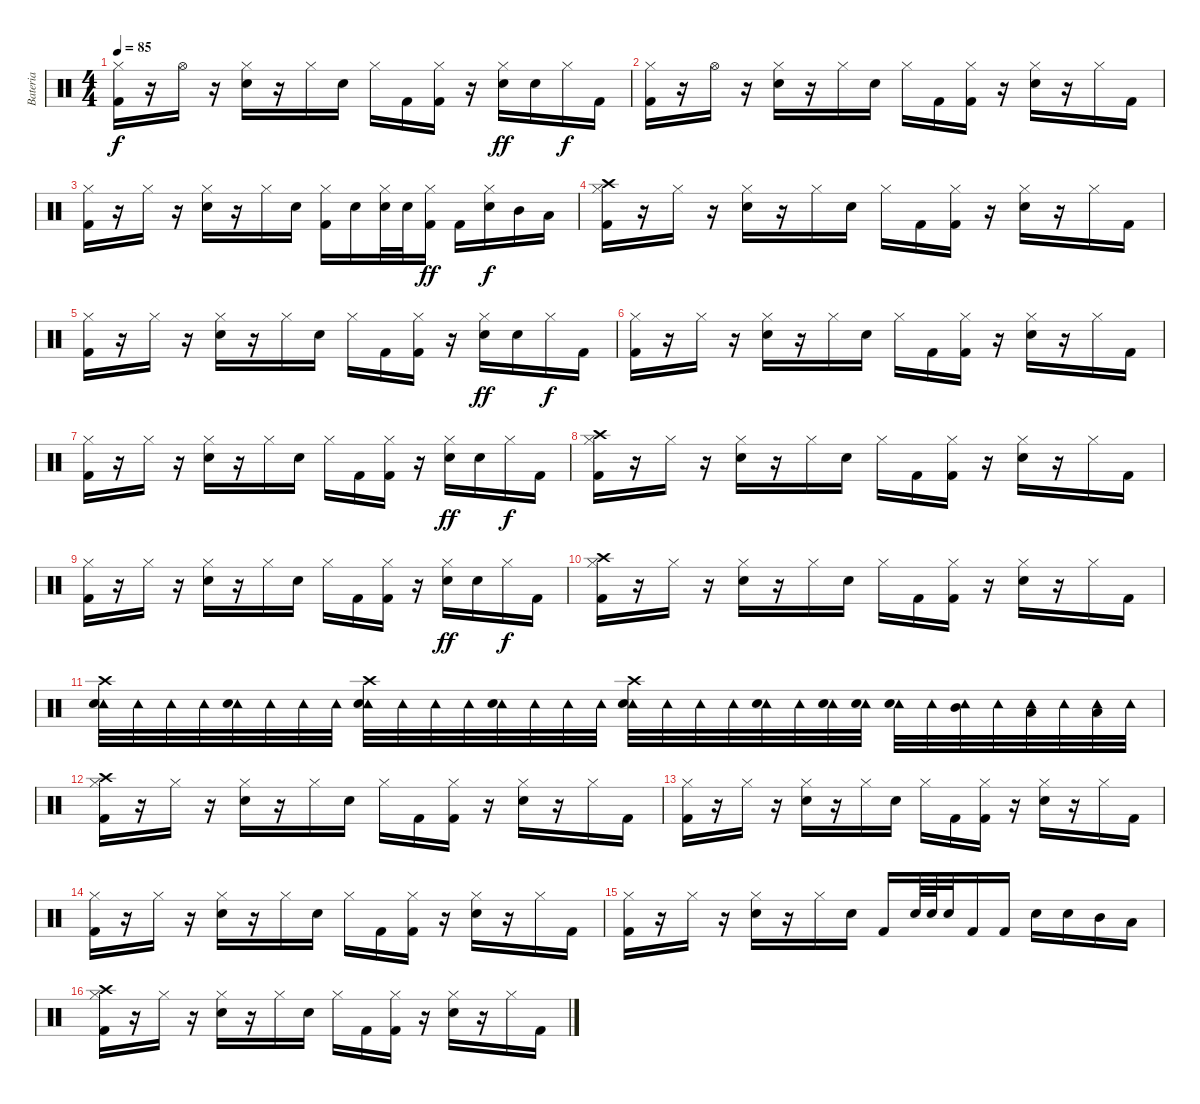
\track ("Bateria" "Bateria") {instrument percussion}
\staff {score}
\articulation defaults
\ts (4 4)
\tempo 85
\clef neutral
\ks c
("Hi-Hat (closed)" "Kick (hit) 2").16{dy f} r.16 "Hi-Hat (open)".16 r.16 ("Hi-Hat (closed)" "Snare (hit) 2").16 r.16 "Hi-Hat (closed)".16 "Snare (hit) 2".16 "Hi-Hat (closed)".16 "Kick (hit) 2".16 ("Hi-Hat (closed)" "Kick (hit) 2").16 r.16 ("Hi-Hat (closed)" "Snare (hit) 2").16{dy ff} "Snare (hit) 2".16 "Hi-Hat (closed)".16{dy f} "Kick (hit) 2".16 |
("Hi-Hat (closed)" "Kick (hit) 2").16 r.16 "Hi-Hat (open)".16 r.16 ("Hi-Hat (closed)" "Snare (hit) 2").16 r.16 "Hi-Hat (closed)".16 "Snare (hit) 2".16 "Hi-Hat (closed)".16 "Kick (hit) 2".16 ("Hi-Hat (closed)" "Kick (hit) 2").16 r.16 ("Hi-Hat (closed)" "Snare (hit) 2").16 r.16 "Hi-Hat (closed)".16 "Kick (hit) 2".16 |
("Hi-Hat (closed)" "Kick (hit) 2").16 r.16 "Hi-Hat (closed)".16 r.16 ("Hi-Hat (closed)" "Snare (hit) 2").16 r.16 "Hi-Hat (closed)".16 "Snare (hit) 2".16 ("Hi-Hat (closed)" "Kick (hit) 2").16 "Snare (hit) 2".16 ("Hi-Hat (closed)" "Snare (hit) 2").32 "Snare (hit) 2".32 ("Hi-Hat (closed)" "Kick (hit) 2").16{dy ff} "Kick (hit) 2".16 ("Hi-Hat (closed)" "Snare (hit) 2").16{dy f} "Mid Tom (hit)".16 "Low Tom (hit)".16 |
("Crash high (hit)" "Hi-Hat (closed)" "Kick (hit) 2").16 r.16 "Hi-Hat (closed)".16 r.16 ("Hi-Hat (closed)" "Snare (hit) 2").16 r.16 "Hi-Hat (closed)".16 "Snare (hit) 2".16 "Hi-Hat (closed)".16 "Kick (hit) 2".16 ("Hi-Hat (closed)" "Kick (hit) 2").16 r.16 ("Hi-Hat (closed)" "Snare (hit) 2").16 r.16 "Hi-Hat (closed)".16 "Kick (hit) 2".16 |
("Hi-Hat (closed)" "Kick (hit) 2").16 r.16 "Hi-Hat (closed)".16 r.16 ("Hi-Hat (closed)" "Snare (hit) 2").16 r.16 "Hi-Hat (closed)".16 "Snare (hit) 2".16 "Hi-Hat (closed)".16 "Kick (hit) 2".16 ("Hi-Hat (closed)" "Kick (hit) 2").16 r.16 ("Hi-Hat (closed)" "Snare (hit) 2").16{dy ff} "Snare (hit) 2".16 "Hi-Hat (closed)".16{dy f} "Kick (hit) 2".16 |
("Hi-Hat (closed)" "Kick (hit) 2").16 r.16 "Hi-Hat (closed)".16 r.16 ("Hi-Hat (closed)" "Snare (hit) 2").16 r.16 "Hi-Hat (closed)".16 "Snare (hit) 2".16 "Hi-Hat (closed)".16 "Kick (hit) 2".16 ("Hi-Hat (closed)" "Kick (hit) 2").16 r.16 ("Hi-Hat (closed)" "Snare (hit) 2").16 r.16 "Hi-Hat (closed)".16 "Kick (hit) 2".16 |
("Hi-Hat (closed)" "Kick (hit) 2").16 r.16 "Hi-Hat (closed)".16 r.16 ("Hi-Hat (closed)" "Snare (hit) 2").16 r.16 "Hi-Hat (closed)".16 "Snare (hit) 2".16 "Hi-Hat (closed)".16 "Kick (hit) 2".16 ("Hi-Hat (closed)" "Kick (hit) 2").16 r.16 ("Hi-Hat (closed)" "Snare (hit) 2").16{dy ff} "Snare (hit) 2".16 "Hi-Hat (closed)".16{dy f} "Kick (hit) 2".16 |
("Crash high (hit)" "Hi-Hat (closed)" "Kick (hit) 2").16 r.16 "Hi-Hat (closed)".16 r.16 ("Hi-Hat (closed)" "Snare (hit) 2").16 r.16 "Hi-Hat (closed)".16 "Snare (hit) 2".16 "Hi-Hat (closed)".16 "Kick (hit) 2".16 ("Hi-Hat (closed)" "Kick (hit) 2").16 r.16 ("Hi-Hat (closed)" "Snare (hit) 2").16 r.16 "Hi-Hat (closed)".16 "Kick (hit) 2".16 |
("Hi-Hat (closed)" "Kick (hit) 2").16 r.16 "Hi-Hat (closed)".16 r.16 ("Hi-Hat (closed)" "Snare (hit) 2").16 r.16 "Hi-Hat (closed)".16 "Snare (hit) 2".16 "Hi-Hat (closed)".16 "Kick (hit) 2".16 ("Hi-Hat (closed)" "Kick (hit) 2").16 r.16 ("Hi-Hat (closed)" "Snare (hit) 2").16{dy ff} "Snare (hit) 2".16 "Hi-Hat (closed)".16{dy f} "Kick (hit) 2".16 |
("Crash high (hit)" "Hi-Hat (closed)" "Kick (hit) 2").16 r.16 "Hi-Hat (closed)".16 r.16 ("Hi-Hat (closed)" "Snare (hit) 2").16 r.16 "Hi-Hat (closed)".16 "Snare (hit) 2".16 "Hi-Hat (closed)".16 "Kick (hit) 2".16 ("Hi-Hat (closed)" "Kick (hit) 2").16 r.16 ("Hi-Hat (closed)" "Snare (hit) 2").16 r.16 "Hi-Hat (closed)".16 "Kick (hit) 2".16 |
("Crash high (hit)" "Tambourine (hit)" "Snare (hit) 2").32 "Tambourine (hit)".32 "Tambourine (hit)".32 "Tambourine (hit)".32 ("Tambourine (hit)" "Snare (hit) 2").32 "Tambourine (hit)".32 "Tambourine (hit)".32 "Tambourine (hit)".32 ("Crash high (hit)" "Tambourine (hit)" "Snare (hit) 2").32 "Tambourine (hit)".32 "Tambourine (hit)".32 "Tambourine (hit)".32 ("Tambourine (hit)" "Snare (hit) 2").32 "Tambourine (hit)".32 "Tambourine (hit)".32 "Tambourine (hit)".32 ("Crash high (hit)" "Tambourine (hit)" "Snare (hit) 2").32 "Tambourine (hit)".32 "Tambourine (hit)".32 "Tambourine (hit)".32 ("Tambourine (hit)" "Snare (hit) 2").32 "Tambourine (hit)".32 ("Tambourine (hit)" "Snare (hit) 2").32 ("Tambourine (hit)" "Snare (hit) 2").32 ("Tambourine (hit)" "Snare (hit) 2").32 "Tambourine (hit)".32 ("Tambourine (hit)" "Mid Tom (hit)").32 "Tambourine (hit)".32 ("Tambourine (hit)" "Low Tom (hit)").32 "Tambourine (hit)".32 ("Tambourine (hit)" "Low Tom (hit)").32 "Tambourine (hit)".32 |
("Crash high (hit)" "Hi-Hat (closed)" "Kick (hit) 2").16 r.16 "Hi-Hat (closed)".16 r.16 ("Hi-Hat (closed)" "Snare (hit) 2").16 r.16 "Hi-Hat (closed)".16 "Snare (hit) 2".16 "Hi-Hat (closed)".16 "Kick (hit) 2".16 ("Hi-Hat (closed)" "Kick (hit) 2").16 r.16 ("Hi-Hat (closed)" "Snare (hit) 2").16 r.16 "Hi-Hat (closed)".16 "Kick (hit) 2".16 |
("Hi-Hat (closed)" "Kick (hit) 2").16 r.16 "Hi-Hat (closed)".16 r.16 ("Hi-Hat (closed)" "Snare (hit) 2").16 r.16 "Hi-Hat (closed)".16 "Snare (hit) 2".16 "Hi-Hat (closed)".16 "Kick (hit) 2".16 ("Hi-Hat (closed)" "Kick (hit) 2").16 r.16 ("Hi-Hat (closed)" "Snare (hit) 2").16 r.16 "Hi-Hat (closed)".16 "Kick (hit) 2".16 |
("Hi-Hat (closed)" "Kick (hit) 2").16 r.16 "Hi-Hat (closed)".16 r.16 ("Hi-Hat (closed)" "Snare (hit) 2").16 r.16 "Hi-Hat (closed)".16 "Snare (hit) 2".16 "Hi-Hat (closed)".16 "Kick (hit) 2".16 ("Hi-Hat (closed)" "Kick (hit) 2").16 r.16 ("Hi-Hat (closed)" "Snare (hit) 2").16 r.16 "Hi-Hat (closed)".16 "Kick (hit) 2".16 |
("Hi-Hat (closed)" "Kick (hit) 2").16 r.16 "Hi-Hat (closed)".16 r.16 ("Hi-Hat (closed)" "Snare (hit) 2").16 r.16 "Hi-Hat (closed)".16 "Snare (hit) 2".16 "Kick (hit) 2".16 "Snare (hit) 2".64 "Snare (hit) 2".64 "Snare (hit) 2".32 "Kick (hit) 2".16 "Kick (hit) 2".16 "Snare (hit) 2".16 "Snare (hit) 2".16 "Mid Tom (hit)".16 "Low Tom (hit)".16 |
("Crash high (hit)" "Hi-Hat (closed)" "Kick (hit) 2").16 r.16 "Hi-Hat (closed)".16 r.16 ("Hi-Hat (closed)" "Snare (hit) 2").16 r.16 "Hi-Hat (closed)".16 "Snare (hit) 2".16 "Hi-Hat (closed)".16 "Kick (hit) 2".16 ("Hi-Hat (closed)" "Kick (hit) 2").16 r.16 ("Hi-Hat (closed)" "Snare (hit) 2").16 r.16 "Hi-Hat (closed)".16 "Kick (hit) 2".16
